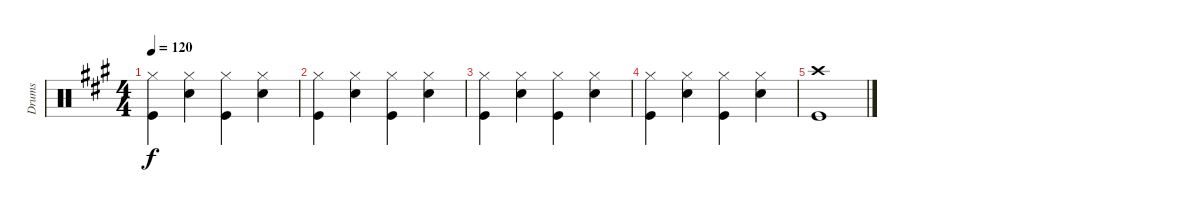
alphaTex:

\track ("Drums" "Drums") {instrument percussion}
\staff {score}
\articulation defaults
\ts (4 4)
\tempo 120
\clef neutral
\ks a
("Kick (hit)" "Hi-Hat (closed)").4{dy f} ("Snare (hit) 2" "Hi-Hat (closed)").4 ("Kick (hit)" "Hi-Hat (closed)").4 ("Snare (hit) 2" "Hi-Hat (closed)").4 |
("Kick (hit)" "Hi-Hat (closed)").4 ("Snare (hit) 2" "Hi-Hat (closed)").4 ("Kick (hit)" "Hi-Hat (closed)").4 ("Snare (hit) 2" "Hi-Hat (closed)").4 |
("Kick (hit)" "Hi-Hat (closed)").4 ("Snare (hit) 2" "Hi-Hat (closed)").4 ("Kick (hit)" "Hi-Hat (closed)").4 ("Snare (hit) 2" "Hi-Hat (closed)").4 |
("Kick (hit)" "Hi-Hat (closed)").4 ("Snare (hit) 2" "Hi-Hat (closed)").4 ("Kick (hit)" "Hi-Hat (closed)").4 ("Snare (hit) 2" "Hi-Hat (closed)").4 |
("Kick (hit)" "Crash high (hit)").1
